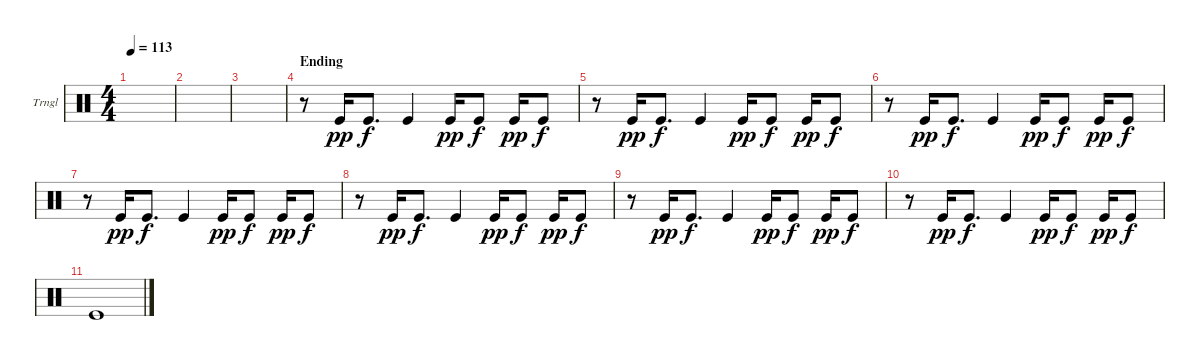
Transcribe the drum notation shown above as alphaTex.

\defaultSystemsLayout 4
\bracketExtendMode groupsimilarinstruments
\firstSystemTrackNameOrientation horizontal
\otherSystemsTrackNameOrientation horizontal
\track ("Triangle" "Trngl") {instrument percussion}
\staff {score}
\articulation defaults
\ts (4 4)
\tempo 113
\clef neutral
\ks c
|
|
|
\section ("" "Ending")
r.8 "Kick (hit)".16{dy pp} "Kick (hit)".8{d dy f} "Kick (hit)".4 "Kick (hit)".16{dy pp} "Kick (hit)".8{dy f} "Kick (hit)".16{dy pp} "Kick (hit)".8{dy f} |
r.8 "Kick (hit)".16{dy pp} "Kick (hit)".8{d dy f} "Kick (hit)".4 "Kick (hit)".16{dy pp} "Kick (hit)".8{dy f} "Kick (hit)".16{dy pp} "Kick (hit)".8{dy f} |
r.8 "Kick (hit)".16{dy pp} "Kick (hit)".8{d dy f} "Kick (hit)".4 "Kick (hit)".16{dy pp} "Kick (hit)".8{dy f} "Kick (hit)".16{dy pp} "Kick (hit)".8{dy f} |
r.8 "Kick (hit)".16{dy pp} "Kick (hit)".8{d dy f} "Kick (hit)".4 "Kick (hit)".16{dy pp} "Kick (hit)".8{dy f} "Kick (hit)".16{dy pp} "Kick (hit)".8{dy f} |
r.8 "Kick (hit)".16{dy pp} "Kick (hit)".8{d dy f} "Kick (hit)".4 "Kick (hit)".16{dy pp} "Kick (hit)".8{dy f} "Kick (hit)".16{dy pp} "Kick (hit)".8{dy f} |
r.8 "Kick (hit)".16{dy pp} "Kick (hit)".8{d dy f} "Kick (hit)".4 "Kick (hit)".16{dy pp} "Kick (hit)".8{dy f} "Kick (hit)".16{dy pp} "Kick (hit)".8{dy f} |
r.8 "Kick (hit)".16{dy pp} "Kick (hit)".8{d dy f} "Kick (hit)".4 "Kick (hit)".16{dy pp} "Kick (hit)".8{dy f} "Kick (hit)".16{dy pp} "Kick (hit)".8{dy f} |
"Kick (hit)".1
